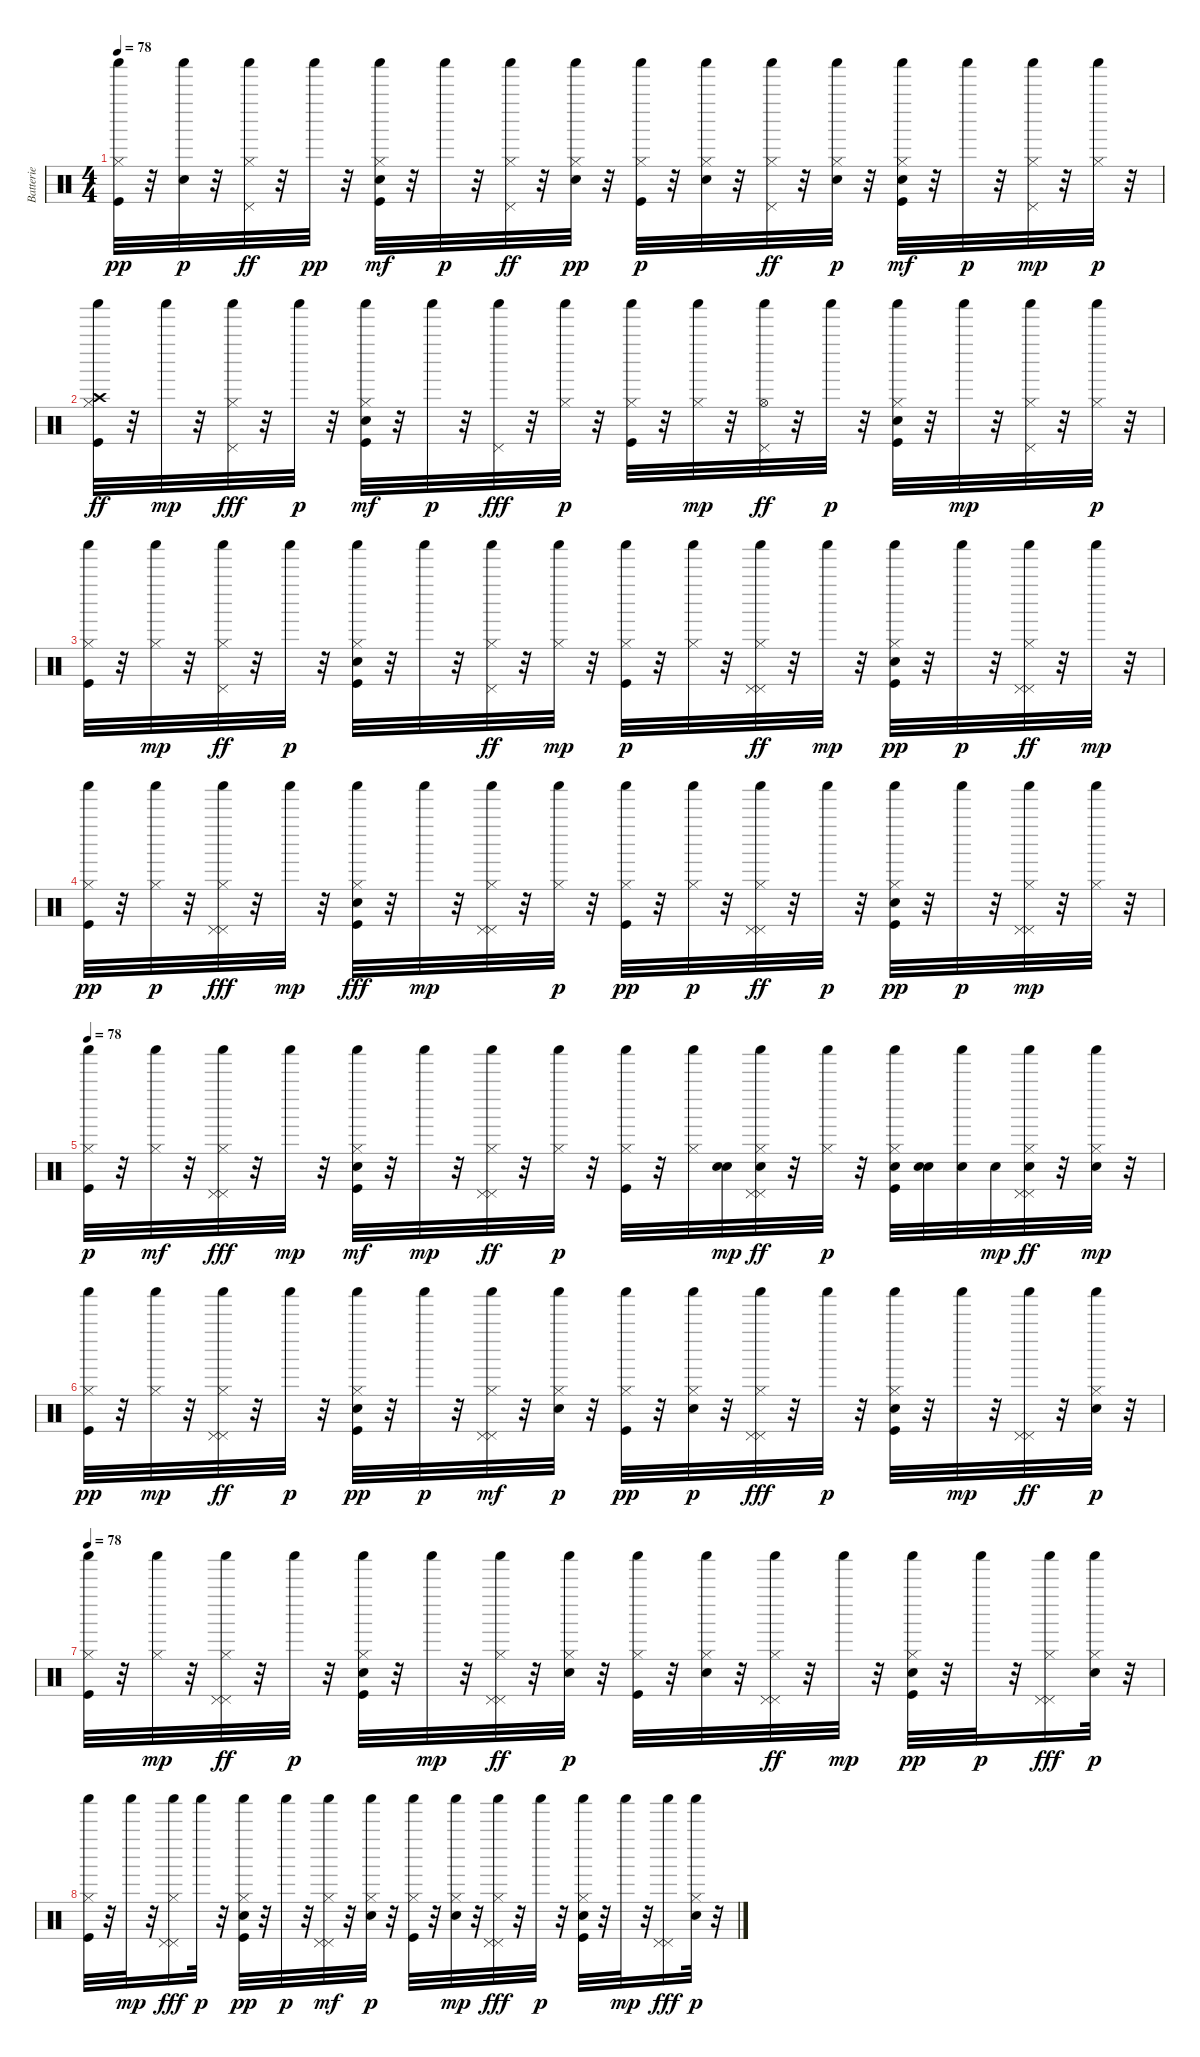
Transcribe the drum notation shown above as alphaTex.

\track ("Batterie" "Batterie") {instrument percussion}
\staff {score}
\articulation defaults
\ts (4 4)
\tempo 78
\clef neutral
\ks c
("Hi-Hat (closed)" "Kick (hit)" "Shaker (hit)").32{dy pp} r.32 ("Shaker (hit)" "Electric Snare (hit)").32{dy p} r.32 ("Hi-Hat (closed)" "Pedal Hi-Hat (hit)" "Shaker (hit)").32{dy ff} r.32 "Shaker (hit)".32{dy pp} r.32 ("Hi-Hat (closed)" "Kick (hit)" "Shaker (hit)" "Electric Snare (hit)").32{dy mf} r.32 "Shaker (hit)".32{dy p} r.32 ("Hi-Hat (closed)" "Shaker (hit)" "Pedal Hi-Hat (hit)").32{dy ff} r.32 ("Shaker (hit)" "Hi-Hat (closed)" "Electric Snare (hit)").32{dy pp} r.32 ("Kick (hit)" "Hi-Hat (closed)" "Shaker (hit)").32{dy p} r.32 ("Electric Snare (hit)" "Hi-Hat (closed)" "Shaker (hit)").32 r.32 ("Hi-Hat (closed)" "Pedal Hi-Hat (hit)" "Shaker (hit)").32{dy ff} r.32 ("Electric Snare (hit)" "Hi-Hat (closed)" "Shaker (hit)").32{dy p} r.32 ("Hi-Hat (closed)" "Kick (hit)" "Shaker (hit)" "Electric Snare (hit)").32{dy mf} r.32 "Shaker (hit)".32{dy p} r.32 ("Pedal Hi-Hat (hit)" "Shaker (hit)" "Hi-Hat (closed)").32{dy mp} r.32 ("Shaker (hit)" "Hi-Hat (closed)").32{dy p} r.32 |
("Kick (hit)" "Shaker (hit)" "Hi-Hat (closed)" "Crash high (hit)").32{dy ff} r.32 "Shaker (hit)".32{dy mp} r.32 ("Hi-Hat (closed)" "Shaker (hit)" "Pedal Hi-Hat (hit)").32{dy fff} r.32 "Shaker (hit)".32{dy p} r.32 ("Electric Snare (hit)" "Hi-Hat (closed)" "Shaker (hit)" "Kick (hit)").32{dy mf} r.32 "Shaker (hit)".32{dy p} r.32 ("Shaker (hit)" "Pedal Hi-Hat (hit)").32{dy fff} r.32 ("Hi-Hat (closed)" "Shaker (hit)").32{dy p} r.32 ("Hi-Hat (closed)" "Kick (hit)" "Shaker (hit)").32 r.32 ("Hi-Hat (closed)" "Shaker (hit)").32{dy mp} r.32 ("Hi-Hat (open)" "Pedal Hi-Hat (hit)" "Shaker (hit)").32{dy ff} r.32 "Shaker (hit)".32{dy p} r.32 ("Electric Snare (hit)" "Hi-Hat (closed)" "Kick (hit)" "Shaker (hit)").32 r.32 "Shaker (hit)".32{dy mp} r.32 ("Shaker (hit)" "Pedal Hi-Hat (hit)" "Hi-Hat (closed)").32 r.32 ("Hi-Hat (closed)" "Shaker (hit)").32{dy p} r.32 |
("Hi-Hat (closed)" "Shaker (hit)" "Kick (hit)").32 r.32 ("Hi-Hat (closed)" "Shaker (hit)").32{dy mp} r.32 ("Hi-Hat (closed)" "Shaker (hit)" "Pedal Hi-Hat (hit)").32{dy ff} r.32 "Shaker (hit)".32{dy p} r.32 ("Electric Snare (hit)" "Hi-Hat (closed)" "Kick (hit)" "Shaker (hit)").32 r.32 "Shaker (hit)".32 r.32 ("Hi-Hat (closed)" "Pedal Hi-Hat (hit)" "Shaker (hit)").32{dy ff} r.32 ("Hi-Hat (closed)" "Shaker (hit)").32{dy mp} r.32 ("Kick (hit)" "Hi-Hat (closed)" "Shaker (hit)").32{dy p} r.32 ("Hi-Hat (closed)" "Shaker (hit)").32 r.32 ("Pedal Hi-Hat (hit)" "Hi-Hat (closed)" "Pedal Hi-Hat (hit)" "Shaker (hit)").32{dy ff} r.32 "Shaker (hit)".32{dy mp} r.32 ("Electric Snare (hit)" "Hi-Hat (closed)" "Kick (hit)" "Shaker (hit)").32{dy pp} r.32 "Shaker (hit)".32{dy p} r.32 ("Pedal Hi-Hat (hit)" "Hi-Hat (closed)" "Pedal Hi-Hat (hit)" "Shaker (hit)").32{dy ff} r.32 "Shaker (hit)".32{dy mp} r.32 |
("Hi-Hat (closed)" "Kick (hit)" "Shaker (hit)").32{dy pp} r.32 ("Hi-Hat (closed)" "Shaker (hit)").32{dy p} r.32 ("Pedal Hi-Hat (hit)" "Pedal Hi-Hat (hit)" "Hi-Hat (closed)" "Shaker (hit)").32{dy fff} r.32 "Shaker (hit)".32{dy mp} r.32 ("Electric Snare (hit)" "Shaker (hit)" "Kick (hit)" "Hi-Hat (closed)").32{dy fff} r.32 "Shaker (hit)".32{dy mp} r.32 ("Pedal Hi-Hat (hit)" "Pedal Hi-Hat (hit)" "Shaker (hit)" "Hi-Hat (closed)").32 r.32 ("Hi-Hat (closed)" "Shaker (hit)").32{dy p} r.32 ("Hi-Hat (closed)" "Shaker (hit)" "Kick (hit)").32{dy pp} r.32 ("Hi-Hat (closed)" "Shaker (hit)").32{dy p} r.32 ("Pedal Hi-Hat (hit)" "Pedal Hi-Hat (hit)" "Hi-Hat (closed)" "Shaker (hit)").32{dy ff} r.32 "Shaker (hit)".32{dy p} r.32 ("Electric Snare (hit)" "Hi-Hat (closed)" "Kick (hit)" "Shaker (hit)").32{dy pp} r.32 "Shaker (hit)".32{dy p} r.32 ("Pedal Hi-Hat (hit)" "Pedal Hi-Hat (hit)" "Shaker (hit)" "Hi-Hat (closed)").32{dy mp} r.32 ("Hi-Hat (closed)" "Shaker (hit)").32 r.32 |
\tempo 78
("Kick (hit)" "Shaker (hit)" "Hi-Hat (closed)").32{dy p} r.32 ("Shaker (hit)" "Hi-Hat (closed)").32{dy mf} r.32 ("Pedal Hi-Hat (hit)" "Pedal Hi-Hat (hit)" "Hi-Hat (closed)" "Shaker (hit)").32{dy fff} r.32 "Shaker (hit)".32{dy mp} r.32 ("Electric Snare (hit)" "Hi-Hat (closed)" "Shaker (hit)" "Kick (hit)").32{dy mf} r.32 "Shaker (hit)".32{dy mp} r.32 ("Pedal Hi-Hat (hit)" "Pedal Hi-Hat (hit)" "Hi-Hat (closed)" "Shaker (hit)").32{dy ff} r.32 ("Hi-Hat (closed)" "Shaker (hit)").32{dy p} r.32 ("Hi-Hat (closed)" "Kick (hit)" "Shaker (hit)").32 r.32 ("Hi-Hat (closed)" "Shaker (hit)").32 ("Electric Snare (hit)" "Electric Snare (hit)").32{dy mp} ("Electric Snare (hit)" "Pedal Hi-Hat (hit)" "Pedal Hi-Hat (hit)" "Hi-Hat (closed)" "Shaker (hit)").32{dy ff} r.32 ("Hi-Hat (closed)" "Shaker (hit)").32{dy p} r.32 ("Electric Snare (hit)" "Hi-Hat (closed)" "Kick (hit)" "Shaker (hit)").32 ("Electric Snare (hit)" "Electric Snare (hit)").32 ("Shaker (hit)" "Electric Snare (hit)").32 "Electric Snare (hit)".32{dy mp} ("Electric Snare (hit)" "Pedal Hi-Hat (hit)" "Pedal Hi-Hat (hit)" "Hi-Hat (closed)" "Shaker (hit)").32{dy ff} r.32 ("Electric Snare (hit)" "Hi-Hat (closed)" "Shaker (hit)").32{dy mp} r.32 |
("Kick (hit)" "Hi-Hat (closed)" "Shaker (hit)").32{dy pp} r.32 ("Hi-Hat (closed)" "Shaker (hit)").32{dy mp} r.32 ("Pedal Hi-Hat (hit)" "Pedal Hi-Hat (hit)" "Hi-Hat (closed)" "Shaker (hit)").32{dy ff} r.32 "Shaker (hit)".32{dy p} r.32 ("Electric Snare (hit)" "Hi-Hat (closed)" "Kick (hit)" "Shaker (hit)").32{dy pp} r.32 "Shaker (hit)".32{dy p} r.32 ("Pedal Hi-Hat (hit)" "Pedal Hi-Hat (hit)" "Hi-Hat (closed)" "Shaker (hit)").32{dy mf} r.32 ("Electric Snare (hit)" "Hi-Hat (closed)" "Shaker (hit)").32{dy p} r.32 ("Hi-Hat (closed)" "Kick (hit)" "Shaker (hit)").32{dy pp} r.32 ("Electric Snare (hit)" "Hi-Hat (closed)" "Shaker (hit)").32{dy p} r.32 ("Pedal Hi-Hat (hit)" "Hi-Hat (closed)" "Pedal Hi-Hat (hit)" "Shaker (hit)").32{dy fff} r.32 "Shaker (hit)".32{dy p} r.32 ("Electric Snare (hit)" "Hi-Hat (closed)" "Kick (hit)" "Shaker (hit)").32 r.32 "Shaker (hit)".32{dy mp} r.32 ("Pedal Hi-Hat (hit)" "Pedal Hi-Hat (hit)" "Shaker (hit)").32{dy ff} r.32 ("Electric Snare (hit)" "Hi-Hat (closed)" "Shaker (hit)").32{dy p} r.32 |
\tempo 78
("Hi-Hat (closed)" "Kick (hit)" "Shaker (hit)").32 r.32 ("Hi-Hat (closed)" "Shaker (hit)").32{dy mp} r.32 ("Pedal Hi-Hat (hit)" "Hi-Hat (closed)" "Pedal Hi-Hat (hit)" "Shaker (hit)").32{dy ff} r.32 "Shaker (hit)".32{dy p} r.32 ("Electric Snare (hit)" "Hi-Hat (closed)" "Kick (hit)" "Shaker (hit)").32 r.32 "Shaker (hit)".32{dy mp} r.32 ("Pedal Hi-Hat (hit)" "Hi-Hat (closed)" "Pedal Hi-Hat (hit)" "Shaker (hit)").32{dy ff} r.32 ("Electric Snare (hit)" "Hi-Hat (closed)" "Shaker (hit)").32{dy p} r.32 ("Hi-Hat (closed)" "Kick (hit)" "Shaker (hit)").32 r.32 ("Electric Snare (hit)" "Hi-Hat (closed)" "Shaker (hit)").32 r.32 ("Pedal Hi-Hat (hit)" "Pedal Hi-Hat (hit)" "Hi-Hat (closed)" "Shaker (hit)").32{dy ff} r.32 "Shaker (hit)".32{dy mp} r.32 ("Electric Snare (hit)" "Hi-Hat (closed)" "Kick (hit)" "Shaker (hit)").32{dy pp} r.32 "Shaker (hit)".32{dy p} r.32 ("Pedal Hi-Hat (hit)" "Hi-Hat (closed)" "Shaker (hit)" "Pedal Hi-Hat (hit)").16{dy fff} ("Electric Snare (hit)" "Hi-Hat (closed)" "Shaker (hit)").32{dy p} r.32 |
("Hi-Hat (closed)" "Kick (hit)" "Shaker (hit)").32 r.32 "Shaker (hit)".32{dy mp} r.32 ("Hi-Hat (closed)" "Pedal Hi-Hat (hit)" "Shaker (hit)" "Pedal Hi-Hat (hit)").16{dy fff} "Shaker (hit)".32{dy p} r.32 ("Electric Snare (hit)" "Hi-Hat (closed)" "Kick (hit)" "Shaker (hit)").32{dy pp} r.32 "Shaker (hit)".32{dy p} r.32 ("Pedal Hi-Hat (hit)" "Pedal Hi-Hat (hit)" "Hi-Hat (closed)" "Shaker (hit)").32{dy mf} r.32 ("Electric Snare (hit)" "Hi-Hat (closed)" "Shaker (hit)").32{dy p} r.32 ("Hi-Hat (closed)" "Kick (hit)" "Shaker (hit)").32 r.32 ("Electric Snare (hit)" "Hi-Hat (closed)" "Shaker (hit)").32{dy mp} r.32 ("Pedal Hi-Hat (hit)" "Pedal Hi-Hat (hit)" "Hi-Hat (closed)" "Shaker (hit)").32{dy fff} r.32 "Shaker (hit)".32{dy p} r.32 ("Electric Snare (hit)" "Hi-Hat (closed)" "Kick (hit)" "Shaker (hit)").32 r.32 "Shaker (hit)".32{dy mp} r.32 ("Pedal Hi-Hat (hit)" "Shaker (hit)" "Pedal Hi-Hat (hit)").16{dy fff} ("Electric Snare (hit)" "Hi-Hat (closed)" "Shaker (hit)").32{dy p} r.32
